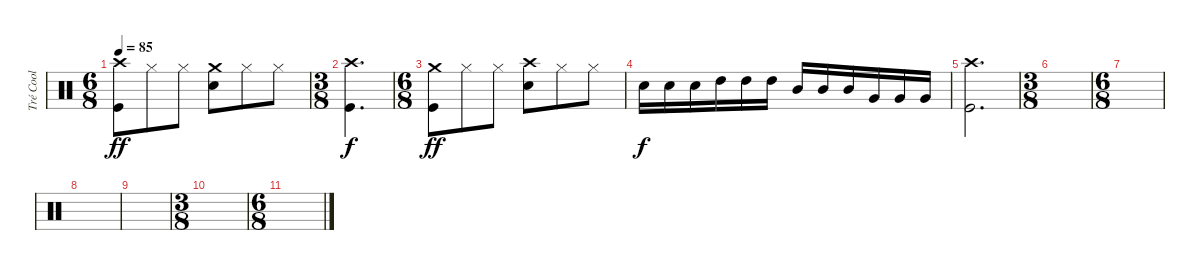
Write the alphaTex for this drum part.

\track ("Tré Cool" "Tré Cool") {instrument percussion}
\staff {score}
\articulation defaults
\ts (6 8)
\tempo 85
\clef neutral
\ks c
("Crash high (hit)" "Kick (hit)").8{dy ff} "Hi-Hat (closed)".8 "Hi-Hat (closed)".8 ("Crash medium (hit)" "Snare (hit) 2").8 "Hi-Hat (closed)".8 "Hi-Hat (closed)".8 |
\ts (3 8)
("Crash high (hit)" "Kick (hit)").4{d dy f} |
\ts (6 8)
("Crash medium (hit)" "Kick (hit)").8{dy ff} "Hi-Hat (closed)".8 "Hi-Hat (closed)".8 ("Crash high (hit)" "Snare (hit) 2").8 "Hi-Hat (closed)".8 "Hi-Hat (closed)".8 |
"Snare (hit) 2".16{dy f} "Snare (hit) 2".16 "Snare (hit) 2".16 "High Tom (hit)".16 "High Tom (hit)".16 "High Tom (hit)".16 "Mid Tom (hit)".16 "Mid Tom (hit)".16 "Mid Tom (hit)".16 "Very Low Tom (hit)".16 "Very Low Tom (hit)".16 "Very Low Tom (hit)".16 |
("Crash high (hit)" "Kick (hit)").2{d} |
\ts (3 8)
|
\ts (6 8)
|
|
|
\ts (3 8)
|
\ts (6 8)
